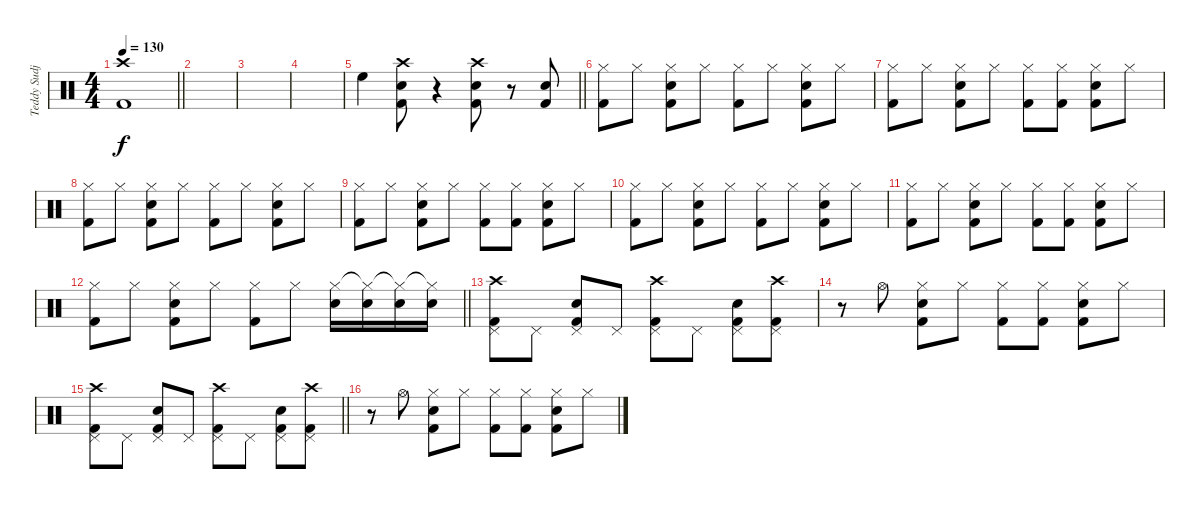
\track ("Teddy Sudjaya (drum)" "Teddy Sudj") {instrument percussion}
\staff {score}
\articulation defaults
\ts (4 4)
\tempo 130
\clef neutral
\barLineRight lightlight
\ks c
("Crash high (hit)" "Kick (hit) 2").1{dy f} |
|
|
|
\barLineRight lightlight "High Floor Tom (hit)".4
("Snare (hit) 2" "Crash high (hit)" "Kick (hit) 2").8 r.4 ("Snare (hit) 2" "Crash high (hit)" "Kick (hit) 2").8 r.8 ("Snare (hit) 2" "Kick (hit) 2").8 |
("Hi-Hat (closed)" "Kick (hit) 2").8 "Hi-Hat (closed)".8 ("Snare (hit) 2" "Hi-Hat (closed)" "Kick (hit) 2").8 "Hi-Hat (closed)".8 ("Hi-Hat (closed)" "Kick (hit) 2").8 "Hi-Hat (closed)".8 ("Snare (hit) 2" "Hi-Hat (closed)" "Kick (hit) 2").8 "Hi-Hat (closed)".8 |
("Hi-Hat (closed)" "Kick (hit) 2").8 "Hi-Hat (closed)".8 ("Snare (hit) 2" "Hi-Hat (closed)" "Kick (hit) 2").8 "Hi-Hat (closed)".8 ("Hi-Hat (closed)" "Kick (hit) 2").8 ("Hi-Hat (closed)" "Kick (hit) 2").8 ("Snare (hit) 2" "Hi-Hat (closed)" "Kick (hit) 2").8 "Hi-Hat (closed)".8 |
("Hi-Hat (closed)" "Kick (hit) 2").8 "Hi-Hat (closed)".8 ("Snare (hit) 2" "Hi-Hat (closed)" "Kick (hit) 2").8 "Hi-Hat (closed)".8 ("Hi-Hat (closed)" "Kick (hit) 2").8 "Hi-Hat (closed)".8 ("Snare (hit) 2" "Hi-Hat (closed)" "Kick (hit) 2").8 "Hi-Hat (closed)".8 |
("Hi-Hat (closed)" "Kick (hit) 2").8 "Hi-Hat (closed)".8 ("Snare (hit) 2" "Hi-Hat (closed)" "Kick (hit) 2").8 "Hi-Hat (closed)".8 ("Hi-Hat (closed)" "Kick (hit) 2").8 ("Hi-Hat (closed)" "Kick (hit) 2").8 ("Snare (hit) 2" "Hi-Hat (closed)" "Kick (hit) 2").8 "Hi-Hat (closed)".8 |
("Hi-Hat (closed)" "Kick (hit) 2").8 "Hi-Hat (closed)".8 ("Snare (hit) 2" "Hi-Hat (closed)" "Kick (hit) 2").8 "Hi-Hat (closed)".8 ("Hi-Hat (closed)" "Kick (hit) 2").8 "Hi-Hat (closed)".8 ("Snare (hit) 2" "Hi-Hat (closed)" "Kick (hit) 2").8 "Hi-Hat (closed)".8 |
("Hi-Hat (closed)" "Kick (hit) 2").8 "Hi-Hat (closed)".8 ("Snare (hit) 2" "Hi-Hat (closed)" "Kick (hit) 2").8 "Hi-Hat (closed)".8 ("Hi-Hat (closed)" "Kick (hit) 2").8 ("Hi-Hat (closed)" "Kick (hit) 2").8 ("Snare (hit) 2" "Hi-Hat (closed)" "Kick (hit) 2").8 "Hi-Hat (closed)".8 |
\barLineRight lightlight
("Hi-Hat (closed)" "Kick (hit) 2").8 "Hi-Hat (closed)".8 ("Snare (hit) 2" "Hi-Hat (closed)" "Kick (hit) 2").8 "Hi-Hat (closed)".8 ("Hi-Hat (closed)" "Kick (hit) 2").8 "Hi-Hat (closed)".8 ("Hi-Hat (closed)" "Snare (hit) 2").16 ("Hi-Hat (closed)"{t} "Snare (hit) 2").16 ("Hi-Hat (closed)"{t} "Snare (hit) 2").16 ("Hi-Hat (closed)"{t} "Snare (hit) 2").16 |
("Crash high (hit)" "Pedal Hi-Hat (hit)" "Kick (hit) 2").8 "Pedal Hi-Hat (hit)".8 ("Pedal Hi-Hat (hit)" "Snare (hit) 2" "Kick (hit) 2").8 "Pedal Hi-Hat (hit)".8 ("Crash high (hit)" "Pedal Hi-Hat (hit)" "Kick (hit) 2").8 "Pedal Hi-Hat (hit)".8 ("Pedal Hi-Hat (hit)" "Snare (hit) 2" "Kick (hit) 2").8 ("Crash high (hit)" "Pedal Hi-Hat (hit)" "Kick (hit) 2").8 |
r.8 "Hi-Hat (open)".8 ("Hi-Hat (closed)" "Snare (hit) 2" "Kick (hit) 2").8 "Hi-Hat (closed)".8 ("Hi-Hat (closed)" "Kick (hit) 2").8 ("Hi-Hat (closed)" "Kick (hit) 2").8 ("Hi-Hat (closed)" "Snare (hit) 2" "Kick (hit) 2").8 "Hi-Hat (closed)".8 |
\barLineRight lightlight
("Crash high (hit)" "Pedal Hi-Hat (hit)" "Kick (hit) 2").8 "Pedal Hi-Hat (hit)".8 ("Pedal Hi-Hat (hit)" "Snare (hit) 2" "Kick (hit) 2").8 "Pedal Hi-Hat (hit)".8 ("Crash high (hit)" "Pedal Hi-Hat (hit)" "Kick (hit) 2").8 "Pedal Hi-Hat (hit)".8 ("Pedal Hi-Hat (hit)" "Snare (hit) 2" "Kick (hit) 2").8 ("Crash high (hit)" "Pedal Hi-Hat (hit)" "Kick (hit) 2").8 |
r.8 "Hi-Hat (open)".8 ("Hi-Hat (closed)" "Snare (hit) 2" "Kick (hit) 2").8 "Hi-Hat (closed)".8 ("Hi-Hat (closed)" "Kick (hit) 2").8 ("Hi-Hat (closed)" "Kick (hit) 2").8 ("Hi-Hat (closed)" "Snare (hit) 2" "Kick (hit) 2").8 "Hi-Hat (closed)".8
